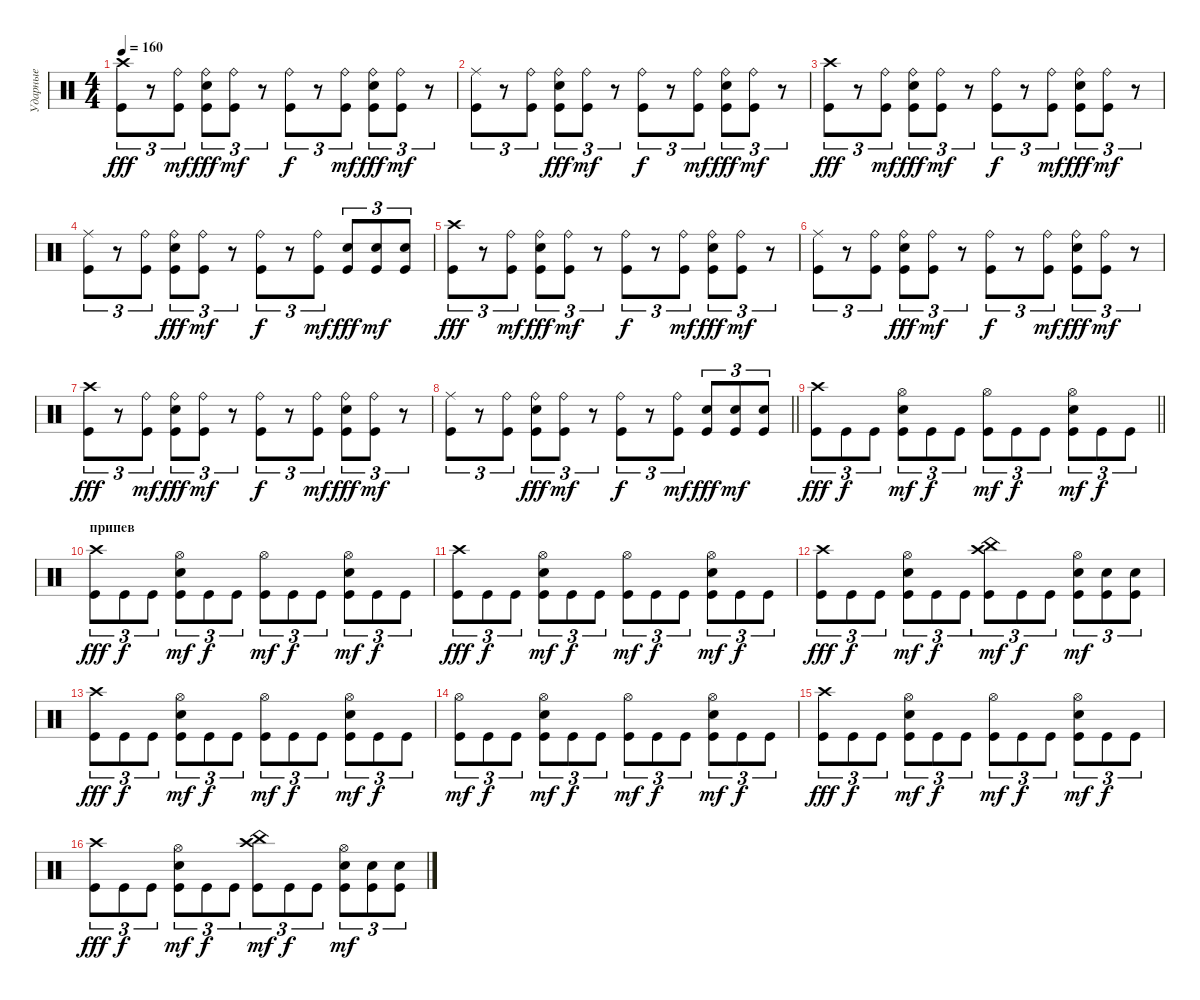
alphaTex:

\track ("Ударные" "Ударные") {instrument percussion}
\staff {score}
\articulation defaults
\ts (4 4)
\tempo 160
\clef neutral
\ks c
("Kick (hit)" "Crash high (hit)").8{tu (3 2) dy fff} r.8{tu (3 2)} ("Kick (hit)" "Ride (bell)").8{tu (3 2) dy mf} ("Kick (hit)" "Snare (hit) 2" "Ride (bell)").8{tu (3 2) dy fff} ("Kick (hit)" "Ride (bell)").8{tu (3 2) dy mf} r.8{tu (3 2)} ("Kick (hit)" "Ride (bell)").8{tu (3 2) dy f} r.8{tu (3 2)} ("Kick (hit)" "Ride (bell)").8{tu (3 2) dy mf} ("Kick (hit)" "Snare (hit) 2" "Ride (bell)").8{tu (3 2) dy fff} ("Kick (hit)" "Ride (bell)").8{tu (3 2) dy mf} r.8{tu (3 2)} |
("Kick (hit)" "Ride (middle)").8{tu (3 2)} r.8{tu (3 2)} ("Kick (hit)" "Ride (bell)").8{tu (3 2)} ("Kick (hit)" "Snare (hit) 2" "Ride (bell)").8{tu (3 2) dy fff} ("Kick (hit)" "Ride (bell)").8{tu (3 2) dy mf} r.8{tu (3 2)} ("Kick (hit)" "Ride (bell)").8{tu (3 2) dy f} r.8{tu (3 2)} ("Kick (hit)" "Ride (bell)").8{tu (3 2) dy mf} ("Kick (hit)" "Snare (hit) 2" "Ride (bell)").8{tu (3 2) dy fff} ("Kick (hit)" "Ride (bell)").8{tu (3 2) dy mf} r.8{tu (3 2)} |
("Kick (hit)" "Crash high (hit)").8{tu (3 2) dy fff} r.8{tu (3 2)} ("Kick (hit)" "Ride (bell)").8{tu (3 2) dy mf} ("Kick (hit)" "Snare (hit) 2" "Ride (bell)").8{tu (3 2) dy fff} ("Kick (hit)" "Ride (bell)").8{tu (3 2) dy mf} r.8{tu (3 2)} ("Kick (hit)" "Ride (bell)").8{tu (3 2) dy f} r.8{tu (3 2)} ("Kick (hit)" "Ride (bell)").8{tu (3 2) dy mf} ("Kick (hit)" "Snare (hit) 2" "Ride (bell)").8{tu (3 2) dy fff} ("Kick (hit)" "Ride (bell)").8{tu (3 2) dy mf} r.8{tu (3 2)} |
("Kick (hit)" "Ride (middle)").8{tu (3 2)} r.8{tu (3 2)} ("Kick (hit)" "Ride (bell)").8{tu (3 2)} ("Kick (hit)" "Snare (hit) 2" "Ride (bell)").8{tu (3 2) dy fff} ("Kick (hit)" "Ride (bell)").8{tu (3 2) dy mf} r.8{tu (3 2)} ("Kick (hit)" "Ride (bell)").8{tu (3 2) dy f} r.8{tu (3 2)} ("Kick (hit)" "Ride (bell)").8{tu (3 2) dy mf} ("Kick (hit)" "Snare (hit) 2").8{tu (3 2) dy fff} ("Kick (hit)" "Snare (hit) 2").8{tu (3 2) dy mf} ("Snare (hit) 2" "Kick (hit)").8{tu (3 2)} |
("Kick (hit)" "Crash high (hit)").8{tu (3 2) dy fff} r.8{tu (3 2)} ("Kick (hit)" "Ride (bell)").8{tu (3 2) dy mf} ("Kick (hit)" "Snare (hit) 2" "Ride (bell)").8{tu (3 2) dy fff} ("Kick (hit)" "Ride (bell)").8{tu (3 2) dy mf} r.8{tu (3 2)} ("Kick (hit)" "Ride (bell)").8{tu (3 2) dy f} r.8{tu (3 2)} ("Kick (hit)" "Ride (bell)").8{tu (3 2) dy mf} ("Kick (hit)" "Snare (hit) 2" "Ride (bell)").8{tu (3 2) dy fff} ("Kick (hit)" "Ride (bell)").8{tu (3 2) dy mf} r.8{tu (3 2)} |
("Kick (hit)" "Ride (middle)").8{tu (3 2)} r.8{tu (3 2)} ("Kick (hit)" "Ride (bell)").8{tu (3 2)} ("Kick (hit)" "Snare (hit) 2" "Ride (bell)").8{tu (3 2) dy fff} ("Kick (hit)" "Ride (bell)").8{tu (3 2) dy mf} r.8{tu (3 2)} ("Kick (hit)" "Ride (bell)").8{tu (3 2) dy f} r.8{tu (3 2)} ("Kick (hit)" "Ride (bell)").8{tu (3 2) dy mf} ("Kick (hit)" "Snare (hit) 2" "Ride (bell)").8{tu (3 2) dy fff} ("Kick (hit)" "Ride (bell)").8{tu (3 2) dy mf} r.8{tu (3 2)} |
("Kick (hit)" "Crash high (hit)").8{tu (3 2) dy fff} r.8{tu (3 2)} ("Kick (hit)" "Ride (bell)").8{tu (3 2) dy mf} ("Kick (hit)" "Snare (hit) 2" "Ride (bell)").8{tu (3 2) dy fff} ("Kick (hit)" "Ride (bell)").8{tu (3 2) dy mf} r.8{tu (3 2)} ("Kick (hit)" "Ride (bell)").8{tu (3 2) dy f} r.8{tu (3 2)} ("Kick (hit)" "Ride (bell)").8{tu (3 2) dy mf} ("Kick (hit)" "Snare (hit) 2" "Ride (bell)").8{tu (3 2) dy fff} ("Kick (hit)" "Ride (bell)").8{tu (3 2) dy mf} r.8{tu (3 2)} |
\barLineRight lightlight
("Kick (hit)" "Ride (middle)").8{tu (3 2)} r.8{tu (3 2)} ("Kick (hit)" "Ride (bell)").8{tu (3 2)} ("Kick (hit)" "Snare (hit) 2" "Ride (bell)").8{tu (3 2) dy fff} ("Kick (hit)" "Ride (bell)").8{tu (3 2) dy mf} r.8{tu (3 2)} ("Kick (hit)" "Ride (bell)").8{tu (3 2) dy f} r.8{tu (3 2)} ("Kick (hit)" "Ride (bell)").8{tu (3 2) dy mf} ("Kick (hit)" "Snare (hit) 2").8{tu (3 2) dy fff} ("Kick (hit)" "Snare (hit) 2").8{tu (3 2) dy mf} ("Snare (hit) 2" "Kick (hit)").8{tu (3 2)} |
\barLineRight lightlight
("Kick (hit)" "Crash high (hit)").8{tu (3 2) dy fff} "Kick (hit)".8{tu (3 2) dy f} "Kick (hit)".8{tu (3 2)} ("Kick (hit)" "Snare (hit) 2" "Hi-Hat (open)").8{tu (3 2) dy mf} "Kick (hit)".8{tu (3 2) dy f} "Kick (hit)".8{tu (3 2)} ("Kick (hit)" "Hi-Hat (open)").8{tu (3 2) dy mf} "Kick (hit)".8{tu (3 2) dy f} "Kick (hit)".8{tu (3 2)} ("Kick (hit)" "Snare (hit) 2" "Hi-Hat (open)").8{tu (3 2) dy mf} "Kick (hit)".8{tu (3 2) dy f} "Kick (hit)".8{tu (3 2)} |
\section ("" "припев")
("Kick (hit)" "Crash high (hit)").8{tu (3 2) dy fff} "Kick (hit)".8{tu (3 2) dy f} "Kick (hit)".8{tu (3 2)} ("Kick (hit)" "Snare (hit) 2" "Hi-Hat (open)").8{tu (3 2) dy mf} "Kick (hit)".8{tu (3 2) dy f} "Kick (hit)".8{tu (3 2)} ("Kick (hit)" "Hi-Hat (open)").8{tu (3 2) dy mf} "Kick (hit)".8{tu (3 2) dy f} "Kick (hit)".8{tu (3 2)} ("Kick (hit)" "Snare (hit) 2" "Hi-Hat (open)").8{tu (3 2) dy mf} "Kick (hit)".8{tu (3 2) dy f} "Kick (hit)".8{tu (3 2)} |
("Kick (hit)" "Crash high (hit)").8{tu (3 2) dy fff} "Kick (hit)".8{tu (3 2) dy f} "Kick (hit)".8{tu (3 2)} ("Kick (hit)" "Snare (hit) 2" "Hi-Hat (open)").8{tu (3 2) dy mf} "Kick (hit)".8{tu (3 2) dy f} "Kick (hit)".8{tu (3 2)} ("Kick (hit)" "Hi-Hat (open)").8{tu (3 2) dy mf} "Kick (hit)".8{tu (3 2) dy f} "Kick (hit)".8{tu (3 2)} ("Kick (hit)" "Snare (hit) 2" "Hi-Hat (open)").8{tu (3 2) dy mf} "Kick (hit)".8{tu (3 2) dy f} "Kick (hit)".8{tu (3 2)} |
("Kick (hit)" "Crash high (hit)").8{tu (3 2) dy fff} "Kick (hit)".8{tu (3 2) dy f} "Kick (hit)".8{tu (3 2)} ("Kick (hit)" "Snare (hit) 2" "Hi-Hat (open)").8{tu (3 2) dy mf} "Kick (hit)".8{tu (3 2) dy f} "Kick (hit)".8{tu (3 2)} ("Kick (hit)" "China (hit)" "Crash high (hit)").8{tu (3 2) dy mf} "Kick (hit)".8{tu (3 2) dy f} "Kick (hit)".8{tu (3 2)} ("Kick (hit)" "Snare (hit) 2" "Hi-Hat (open)").8{tu (3 2) dy mf} ("Kick (hit)" "Snare (hit) 2").8{tu (3 2)} ("Kick (hit)" "Snare (hit) 2").8{tu (3 2)} |
("Kick (hit)" "Crash high (hit)").8{tu (3 2) dy fff} "Kick (hit)".8{tu (3 2) dy f} "Kick (hit)".8{tu (3 2)} ("Kick (hit)" "Snare (hit) 2" "Hi-Hat (open)").8{tu (3 2) dy mf} "Kick (hit)".8{tu (3 2) dy f} "Kick (hit)".8{tu (3 2)} ("Kick (hit)" "Hi-Hat (open)").8{tu (3 2) dy mf} "Kick (hit)".8{tu (3 2) dy f} "Kick (hit)".8{tu (3 2)} ("Kick (hit)" "Snare (hit) 2" "Hi-Hat (open)").8{tu (3 2) dy mf} "Kick (hit)".8{tu (3 2) dy f} "Kick (hit)".8{tu (3 2)} |
("Kick (hit)" "Hi-Hat (open)").8{tu (3 2) dy mf} "Kick (hit)".8{tu (3 2) dy f} "Kick (hit)".8{tu (3 2)} ("Kick (hit)" "Snare (hit) 2" "Hi-Hat (open)").8{tu (3 2) dy mf} "Kick (hit)".8{tu (3 2) dy f} "Kick (hit)".8{tu (3 2)} ("Kick (hit)" "Hi-Hat (open)").8{tu (3 2) dy mf} "Kick (hit)".8{tu (3 2) dy f} "Kick (hit)".8{tu (3 2)} ("Kick (hit)" "Snare (hit) 2" "Hi-Hat (open)").8{tu (3 2) dy mf} "Kick (hit)".8{tu (3 2) dy f} "Kick (hit)".8{tu (3 2)} |
("Kick (hit)" "Crash high (hit)").8{tu (3 2) dy fff} "Kick (hit)".8{tu (3 2) dy f} "Kick (hit)".8{tu (3 2)} ("Kick (hit)" "Snare (hit) 2" "Hi-Hat (open)").8{tu (3 2) dy mf} "Kick (hit)".8{tu (3 2) dy f} "Kick (hit)".8{tu (3 2)} ("Kick (hit)" "Hi-Hat (open)").8{tu (3 2) dy mf} "Kick (hit)".8{tu (3 2) dy f} "Kick (hit)".8{tu (3 2)} ("Kick (hit)" "Snare (hit) 2" "Hi-Hat (open)").8{tu (3 2) dy mf} "Kick (hit)".8{tu (3 2) dy f} "Kick (hit)".8{tu (3 2)} |
("Kick (hit)" "Crash high (hit)").8{tu (3 2) dy fff} "Kick (hit)".8{tu (3 2) dy f} "Kick (hit)".8{tu (3 2)} ("Kick (hit)" "Snare (hit) 2" "Hi-Hat (open)").8{tu (3 2) dy mf} "Kick (hit)".8{tu (3 2) dy f} "Kick (hit)".8{tu (3 2)} ("Kick (hit)" "China (hit)" "Crash high (hit)").8{tu (3 2) dy mf} "Kick (hit)".8{tu (3 2) dy f} "Kick (hit)".8{tu (3 2)} ("Kick (hit)" "Snare (hit) 2" "Hi-Hat (open)").8{tu (3 2) dy mf} ("Kick (hit)" "Snare (hit) 2").8{tu (3 2)} ("Kick (hit)" "Snare (hit) 2").8{tu (3 2)}
